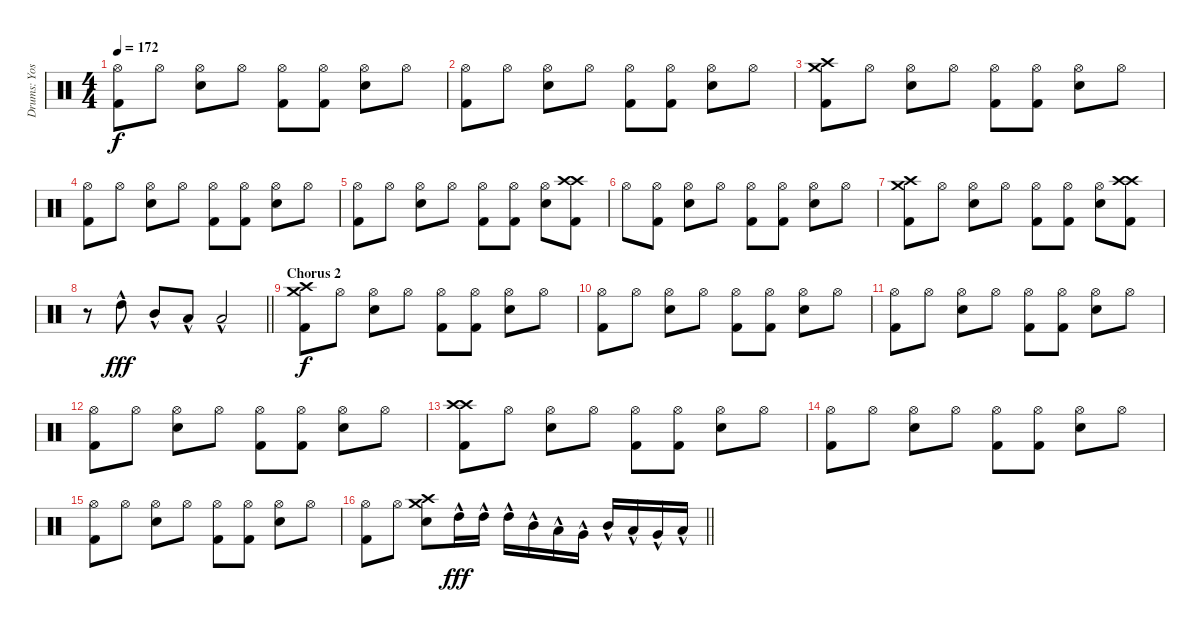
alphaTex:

\track ("Drums: Yoshiki" "Drums: Yos") {instrument percussion}
\staff {score}
\articulation defaults
\ts (4 4)
\tempo 172
\clef neutral
\ks c
("Hi-Hat (open)" "Kick (hit) 2").8{dy f} "Hi-Hat (open)".8 ("Hi-Hat (open)" "Snare (hit) 2").8 "Hi-Hat (open)".8 ("Hi-Hat (open)" "Kick (hit) 2").8 ("Hi-Hat (open)" "Kick (hit) 2").8 ("Hi-Hat (open)" "Snare (hit) 2").8 "Hi-Hat (open)".8 |
("Hi-Hat (open)" "Kick (hit) 2").8 "Hi-Hat (open)".8 ("Hi-Hat (open)" "Snare (hit) 2").8 "Hi-Hat (open)".8 ("Hi-Hat (open)" "Kick (hit) 2").8 ("Hi-Hat (open)" "Kick (hit) 2").8 ("Hi-Hat (open)" "Snare (hit) 2").8 "Hi-Hat (open)".8 |
("Crash high (hit)" "Crash medium (hit)" "Kick (hit) 2").8 "Hi-Hat (open)".8 ("Hi-Hat (open)" "Snare (hit) 2").8 "Hi-Hat (open)".8 ("Hi-Hat (open)" "Kick (hit) 2").8 ("Hi-Hat (open)" "Kick (hit) 2").8 ("Hi-Hat (open)" "Snare (hit) 2").8 "Hi-Hat (open)".8 |
("Hi-Hat (open)" "Kick (hit) 2").8 "Hi-Hat (open)".8 ("Hi-Hat (open)" "Snare (hit) 2").8 "Hi-Hat (open)".8 ("Hi-Hat (open)" "Kick (hit) 2").8 ("Hi-Hat (open)" "Kick (hit) 2").8 ("Hi-Hat (open)" "Snare (hit) 2").8 "Hi-Hat (open)".8 |
("Hi-Hat (open)" "Kick (hit) 2").8 "Hi-Hat (open)".8 ("Hi-Hat (open)" "Snare (hit) 2").8 "Hi-Hat (open)".8 ("Hi-Hat (open)" "Kick (hit) 2").8 ("Hi-Hat (open)" "Kick (hit) 2").8 ("Hi-Hat (open)" "Snare (hit) 2").8 ("Crash high (hit)" "Crash high (hit)" "Kick (hit) 2").8 |
"Hi-Hat (open)".8 ("Hi-Hat (open)" "Kick (hit) 2").8 ("Hi-Hat (open)" "Snare (hit) 2").8 "Hi-Hat (open)".8 ("Hi-Hat (open)" "Kick (hit) 2").8 ("Hi-Hat (open)" "Kick (hit) 2").8 ("Hi-Hat (open)" "Snare (hit) 2").8 "Hi-Hat (open)".8 |
("Crash high (hit)" "Crash medium (hit)" "Kick (hit) 2").8 "Hi-Hat (open)".8 ("Hi-Hat (open)" "Snare (hit) 2").8 "Hi-Hat (open)".8 ("Hi-Hat (open)" "Kick (hit) 2").8 ("Hi-Hat (open)" "Kick (hit) 2").8 ("Hi-Hat (open)" "Snare (hit) 2").8 ("Crash high (hit)" "Crash high (hit)" "Kick (hit) 2").8 |
\barLineRight lightlight
r.8 "High Tom (hit)"{hac}.8{dy fff} "Mid Tom (hit)"{hac}.8 "Low Tom (hit)"{hac}.8 "Low Tom (hit)"{hac}.2 |
\section ("" "Chorus 2")
("Crash high (hit)" "Crash medium (hit)" "Kick (hit) 2").8{dy f} "Hi-Hat (open)".8 ("Hi-Hat (open)" "Snare (hit) 2").8 "Hi-Hat (open)".8 ("Hi-Hat (open)" "Kick (hit) 2").8 ("Hi-Hat (open)" "Kick (hit) 2").8 ("Hi-Hat (open)" "Snare (hit) 2").8 "Hi-Hat (open)".8 |
("Hi-Hat (open)" "Kick (hit) 2").8 "Hi-Hat (open)".8 ("Hi-Hat (open)" "Snare (hit) 2").8 "Hi-Hat (open)".8 ("Hi-Hat (open)" "Kick (hit) 2").8 ("Hi-Hat (open)" "Kick (hit) 2").8 ("Hi-Hat (open)" "Snare (hit) 2").8 "Hi-Hat (open)".8 |
("Hi-Hat (open)" "Kick (hit) 2").8 "Hi-Hat (open)".8 ("Hi-Hat (open)" "Snare (hit) 2").8 "Hi-Hat (open)".8 ("Hi-Hat (open)" "Kick (hit) 2").8 ("Hi-Hat (open)" "Kick (hit) 2").8 ("Hi-Hat (open)" "Snare (hit) 2").8 "Hi-Hat (open)".8 |
("Hi-Hat (open)" "Kick (hit) 2").8 "Hi-Hat (open)".8 ("Hi-Hat (open)" "Snare (hit) 2").8 "Hi-Hat (open)".8 ("Hi-Hat (open)" "Kick (hit) 2").8 ("Hi-Hat (open)" "Kick (hit) 2").8 ("Hi-Hat (open)" "Snare (hit) 2").8 "Hi-Hat (open)".8 |
("Crash high (hit)" "Crash high (hit)" "Kick (hit) 2").8 "Hi-Hat (open)".8 ("Hi-Hat (open)" "Snare (hit) 2").8 "Hi-Hat (open)".8 ("Hi-Hat (open)" "Kick (hit) 2").8 ("Hi-Hat (open)" "Kick (hit) 2").8 ("Hi-Hat (open)" "Snare (hit) 2").8 "Hi-Hat (open)".8 |
("Hi-Hat (open)" "Kick (hit) 2").8 "Hi-Hat (open)".8 ("Hi-Hat (open)" "Snare (hit) 2").8 "Hi-Hat (open)".8 ("Hi-Hat (open)" "Kick (hit) 2").8 ("Hi-Hat (open)" "Kick (hit) 2").8 ("Hi-Hat (open)" "Snare (hit) 2").8 "Hi-Hat (open)".8 |
("Hi-Hat (open)" "Kick (hit) 2").8 "Hi-Hat (open)".8 ("Hi-Hat (open)" "Snare (hit) 2").8 "Hi-Hat (open)".8 ("Hi-Hat (open)" "Kick (hit) 2").8 ("Hi-Hat (open)" "Kick (hit) 2").8 ("Hi-Hat (open)" "Snare (hit) 2").8 "Hi-Hat (open)".8 |
\barLineRight lightlight
("Hi-Hat (open)" "Kick (hit) 2").8 "Hi-Hat (open)".8 ("Crash high (hit)" "Crash medium (hit)" "Snare (hit) 2").8 "High Tom (hit)"{hac}.16{dy fff} "High Tom (hit)"{hac}.16 "High Tom (hit)"{hac}.16 "Mid Tom (hit)"{hac}.16 "Low Tom (hit)"{hac}.16 "Very Low Tom (hit)"{hac}.16 "Mid Tom (hit)"{hac}.16 "Low Tom (hit)"{hac}.16 "Very Low Tom (hit)"{hac}.16 "Low Floor Tom (hit)"{hac}.16
